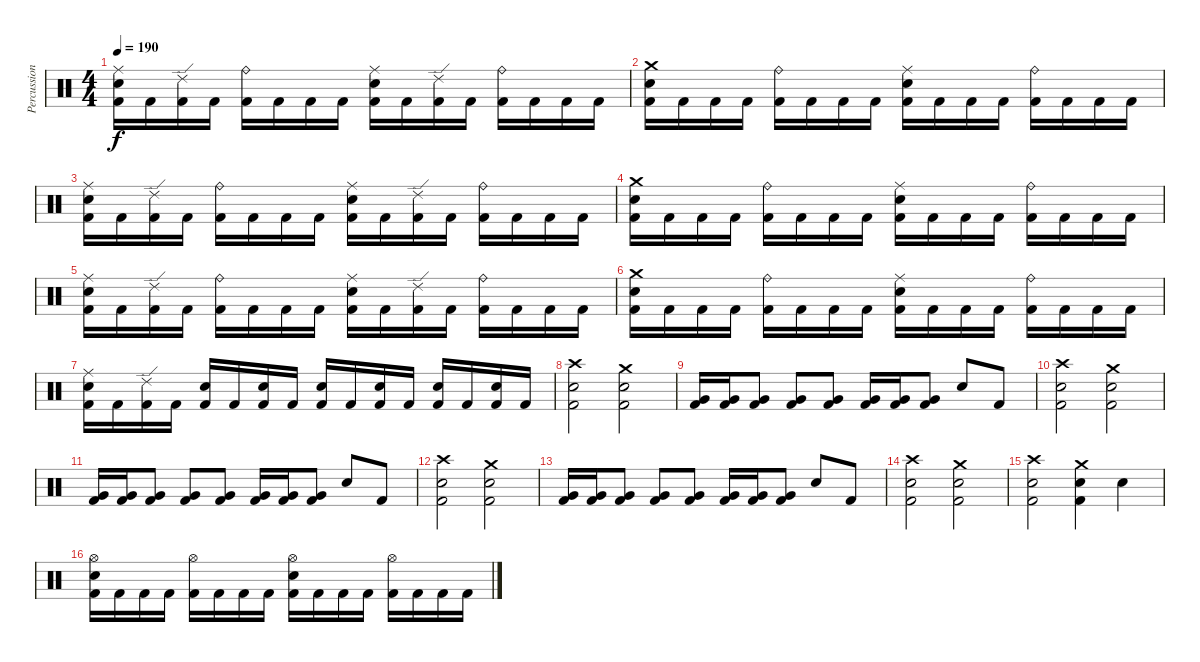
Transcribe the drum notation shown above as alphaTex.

\track ("Percussion" "Percussion") {instrument percussion}
\staff {score}
\articulation defaults
\ts (4 4)
\tempo 190
\clef neutral
\ks c
("Ride (middle)" "Snare (hit) 2" "Kick (hit) 2").16{dy f} "Kick (hit) 2".16 ("Ride (edge) 2" "Kick (hit) 2").16 "Kick (hit) 2".16 ("Ride (bell)" "Kick (hit) 2").16 "Kick (hit) 2".16 "Kick (hit) 2".16 "Kick (hit) 2".16 ("Ride (middle)" "Snare (hit) 2" "Kick (hit) 2").16 "Kick (hit) 2".16 ("Ride (edge) 2" "Kick (hit) 2").16 "Kick (hit) 2".16 ("Ride (bell)" "Kick (hit) 2").16 "Kick (hit) 2".16 "Kick (hit) 2".16 "Kick (hit) 2".16 |
("Crash medium (hit)" "Snare (hit) 2" "Kick (hit) 2").16 "Kick (hit) 2".16 "Kick (hit) 2".16 "Kick (hit) 2".16 ("Ride (bell)" "Kick (hit) 2").16 "Kick (hit) 2".16 "Kick (hit) 2".16 "Kick (hit) 2".16 ("Ride (middle)" "Snare (hit) 2" "Kick (hit) 2").16 "Kick (hit) 2".16 "Kick (hit) 2".16 "Kick (hit) 2".16 ("Ride (bell)" "Kick (hit) 2").16 "Kick (hit) 2".16 "Kick (hit) 2".16 "Kick (hit) 2".16 |
("Ride (middle)" "Snare (hit) 2" "Kick (hit) 2").16 "Kick (hit) 2".16 ("Ride (edge) 2" "Kick (hit) 2").16 "Kick (hit) 2".16 ("Ride (bell)" "Kick (hit) 2").16 "Kick (hit) 2".16 "Kick (hit) 2".16 "Kick (hit) 2".16 ("Ride (middle)" "Snare (hit) 2" "Kick (hit) 2").16 "Kick (hit) 2".16 ("Ride (edge) 2" "Kick (hit) 2").16 "Kick (hit) 2".16 ("Ride (bell)" "Kick (hit) 2").16 "Kick (hit) 2".16 "Kick (hit) 2".16 "Kick (hit) 2".16 |
("Crash medium (hit)" "Snare (hit) 2" "Kick (hit) 2").16 "Kick (hit) 2".16 "Kick (hit) 2".16 "Kick (hit) 2".16 ("Ride (bell)" "Kick (hit) 2").16 "Kick (hit) 2".16 "Kick (hit) 2".16 "Kick (hit) 2".16 ("Ride (middle)" "Snare (hit) 2" "Kick (hit) 2").16 "Kick (hit) 2".16 "Kick (hit) 2".16 "Kick (hit) 2".16 ("Ride (bell)" "Kick (hit) 2").16 "Kick (hit) 2".16 "Kick (hit) 2".16 "Kick (hit) 2".16 |
("Ride (middle)" "Snare (hit) 2" "Kick (hit) 2").16 "Kick (hit) 2".16 ("Ride (edge) 2" "Kick (hit) 2").16 "Kick (hit) 2".16 ("Ride (bell)" "Kick (hit) 2").16 "Kick (hit) 2".16 "Kick (hit) 2".16 "Kick (hit) 2".16 ("Ride (middle)" "Snare (hit) 2" "Kick (hit) 2").16 "Kick (hit) 2".16 ("Ride (edge) 2" "Kick (hit) 2").16 "Kick (hit) 2".16 ("Ride (bell)" "Kick (hit) 2").16 "Kick (hit) 2".16 "Kick (hit) 2".16 "Kick (hit) 2".16 |
("Crash medium (hit)" "Snare (hit) 2" "Kick (hit) 2").16 "Kick (hit) 2".16 "Kick (hit) 2".16 "Kick (hit) 2".16 ("Ride (bell)" "Kick (hit) 2").16 "Kick (hit) 2".16 "Kick (hit) 2".16 "Kick (hit) 2".16 ("Ride (middle)" "Snare (hit) 2" "Kick (hit) 2").16 "Kick (hit) 2".16 "Kick (hit) 2".16 "Kick (hit) 2".16 ("Ride (bell)" "Kick (hit) 2").16 "Kick (hit) 2".16 "Kick (hit) 2".16 "Kick (hit) 2".16 |
("Ride (middle)" "Snare (hit) 2" "Kick (hit) 2").16 "Kick (hit) 2".16 ("Ride (edge) 2" "Kick (hit) 2").16 "Kick (hit) 2".16 ("Snare (hit) 2" "Kick (hit) 2").16 "Kick (hit) 2".16 ("Snare (hit) 2" "Kick (hit) 2").16 "Kick (hit) 2".16 ("Snare (hit) 2" "Kick (hit) 2").16 "Kick (hit) 2".16 ("Snare (hit) 2" "Kick (hit) 2").16 "Kick (hit) 2".16 ("Snare (hit) 2" "Kick (hit) 2").16 "Kick (hit) 2".16 ("Snare (hit) 2" "Kick (hit) 2").16 "Kick (hit) 2".16 |
("Crash high (hit)" "Snare (hit) 2" "Kick (hit) 2").2 ("Crash medium (hit)" "Snare (hit) 2" "Kick (hit) 2").2 |
("Kick (hit) 2" "Very Low Tom (hit)").16 ("Kick (hit) 2" "Very Low Tom (hit)").16 ("Kick (hit) 2" "Very Low Tom (hit)").8 ("Kick (hit) 2" "Very Low Tom (hit)").8 ("Kick (hit) 2" "Very Low Tom (hit)").8 ("Kick (hit) 2" "Very Low Tom (hit)").16 ("Kick (hit) 2" "Very Low Tom (hit)").16 ("Kick (hit) 2" "Very Low Tom (hit)").8 "Snare (hit) 2".8 "Kick (hit) 2".8 |
("Crash high (hit)" "Snare (hit) 2" "Kick (hit) 2").2 ("Crash medium (hit)" "Snare (hit) 2" "Kick (hit) 2").2 |
("Kick (hit) 2" "Very Low Tom (hit)").16 ("Kick (hit) 2" "Very Low Tom (hit)").16 ("Kick (hit) 2" "Very Low Tom (hit)").8 ("Kick (hit) 2" "Very Low Tom (hit)").8 ("Kick (hit) 2" "Very Low Tom (hit)").8 ("Kick (hit) 2" "Very Low Tom (hit)").16 ("Kick (hit) 2" "Very Low Tom (hit)").16 ("Kick (hit) 2" "Very Low Tom (hit)").8 "Snare (hit) 2".8 "Kick (hit) 2".8 |
("Crash high (hit)" "Snare (hit) 2" "Kick (hit) 2").2 ("Crash medium (hit)" "Snare (hit) 2" "Kick (hit) 2").2 |
("Kick (hit) 2" "Very Low Tom (hit)").16 ("Kick (hit) 2" "Very Low Tom (hit)").16 ("Kick (hit) 2" "Very Low Tom (hit)").8 ("Kick (hit) 2" "Very Low Tom (hit)").8 ("Kick (hit) 2" "Very Low Tom (hit)").8 ("Kick (hit) 2" "Very Low Tom (hit)").16 ("Kick (hit) 2" "Very Low Tom (hit)").16 ("Kick (hit) 2" "Very Low Tom (hit)").8 "Snare (hit) 2".8 "Kick (hit) 2".8 |
("Crash high (hit)" "Snare (hit) 2" "Kick (hit) 2").2 ("Crash medium (hit)" "Snare (hit) 2" "Kick (hit) 2").2 |
("Crash high (hit)" "Snare (hit) 2" "Kick (hit) 2").2 ("Crash medium (hit)" "Snare (hit) 2" "Kick (hit) 2").4 "Snare (hit) 2".4 |
("Hi-Hat (open)" "Snare (hit) 2" "Kick (hit) 2").16 "Kick (hit) 2".16 "Kick (hit) 2".16 "Kick (hit) 2".16 ("Hi-Hat (open)" "Kick (hit) 2").16 "Kick (hit) 2".16 "Kick (hit) 2".16 "Kick (hit) 2".16 ("Hi-Hat (open)" "Snare (hit) 2" "Kick (hit) 2").16 "Kick (hit) 2".16 "Kick (hit) 2".16 "Kick (hit) 2".16 ("Hi-Hat (open)" "Kick (hit) 2").16 "Kick (hit) 2".16 "Kick (hit) 2".16 "Kick (hit) 2".16
